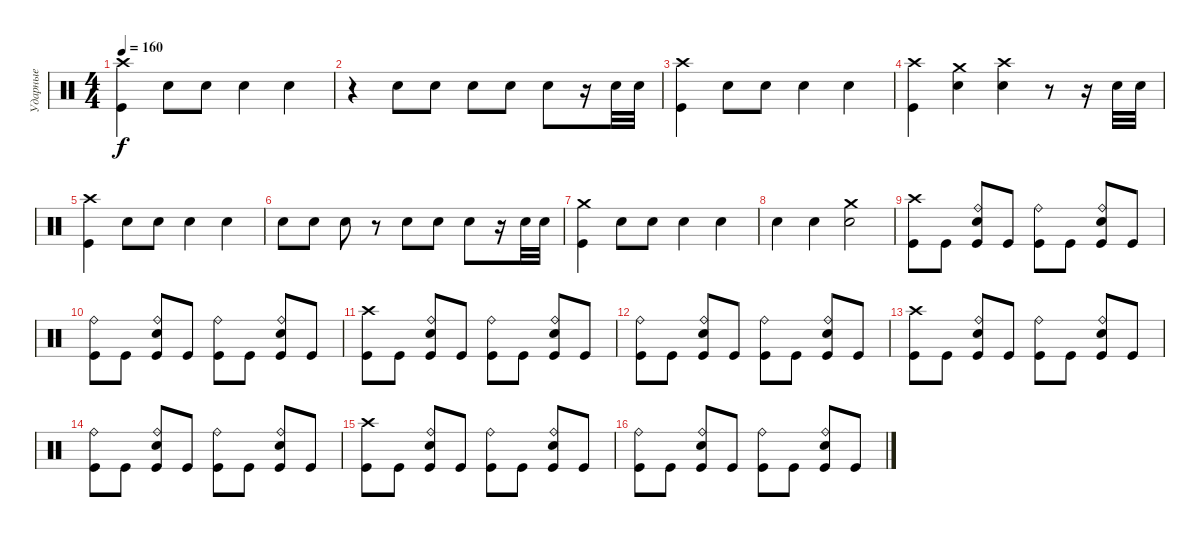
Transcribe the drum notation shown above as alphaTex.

\track ("Ударные" "Ударные") {instrument percussion}
\staff {score}
\articulation defaults
\ts (4 4)
\tempo 160
\clef neutral
\ks c
("Crash high (hit)" "Kick (hit)").4{dy f} "Snare (hit) 2".8 "Snare (hit) 2".8 "Snare (hit) 2".4 "Snare (hit) 2".4 |
r.4 "Snare (hit) 2".8 "Snare (hit) 2".8 "Snare (hit) 2".8 "Snare (hit) 2".8 "Snare (hit) 2".8 r.16 "Snare (hit) 2".32 "Snare (hit) 2".32 |
("Crash high (hit)" "Kick (hit)").4 "Snare (hit) 2".8 "Snare (hit) 2".8 "Snare (hit) 2".4 "Snare (hit) 2".4 |
("Crash high (hit)" "Kick (hit)").4 ("Crash medium (hit)" "Snare (hit) 2").4 ("Crash high (hit)" "Snare (hit) 2").4 r.8 r.16 "Snare (hit) 2".32 "Snare (hit) 2".32 |
("Crash high (hit)" "Kick (hit)").4 "Snare (hit) 2".8 "Snare (hit) 2".8 "Snare (hit) 2".4 "Snare (hit) 2".4 |
"Snare (hit) 2".8 "Snare (hit) 2".8 "Snare (hit) 2".8 r.8 "Snare (hit) 2".8 "Snare (hit) 2".8 "Snare (hit) 2".8 r.16 "Snare (hit) 2".32 "Snare (hit) 2".32 |
("Crash medium (hit)" "Kick (hit)").4 "Snare (hit) 2".8 "Snare (hit) 2".8 "Snare (hit) 2".4 "Snare (hit) 2".4 |
"Snare (hit) 2".4 "Snare (hit) 2".4 ("Crash medium (hit)" "Snare (hit) 2").2 |
("Crash high (hit)" "Kick (hit)").8 "Kick (hit)".8 ("Ride (bell)" "Electric Snare (hit)" "Kick (hit)").8 "Kick (hit)".8 ("Ride (bell)" "Kick (hit)").8 "Kick (hit)".8 ("Ride (bell)" "Electric Snare (hit)" "Kick (hit)").8 "Kick (hit)".8 |
("Ride (bell)" "Kick (hit)").8 "Kick (hit)".8 ("Ride (bell)" "Electric Snare (hit)" "Kick (hit)").8 "Kick (hit)".8 ("Ride (bell)" "Kick (hit)").8 "Kick (hit)".8 ("Ride (bell)" "Electric Snare (hit)" "Kick (hit)").8 "Kick (hit)".8 |
("Crash high (hit)" "Kick (hit)").8 "Kick (hit)".8 ("Ride (bell)" "Electric Snare (hit)" "Kick (hit)").8 "Kick (hit)".8 ("Ride (bell)" "Kick (hit)").8 "Kick (hit)".8 ("Ride (bell)" "Electric Snare (hit)" "Kick (hit)").8 "Kick (hit)".8 |
("Ride (bell)" "Kick (hit)").8 "Kick (hit)".8 ("Ride (bell)" "Electric Snare (hit)" "Kick (hit)").8 "Kick (hit)".8 ("Ride (bell)" "Kick (hit)").8 "Kick (hit)".8 ("Ride (bell)" "Electric Snare (hit)" "Kick (hit)").8 "Kick (hit)".8 |
("Crash high (hit)" "Kick (hit)").8 "Kick (hit)".8 ("Ride (bell)" "Electric Snare (hit)" "Kick (hit)").8 "Kick (hit)".8 ("Ride (bell)" "Kick (hit)").8 "Kick (hit)".8 ("Ride (bell)" "Electric Snare (hit)" "Kick (hit)").8 "Kick (hit)".8 |
("Ride (bell)" "Kick (hit)").8 "Kick (hit)".8 ("Ride (bell)" "Electric Snare (hit)" "Kick (hit)").8 "Kick (hit)".8 ("Ride (bell)" "Kick (hit)").8 "Kick (hit)".8 ("Ride (bell)" "Electric Snare (hit)" "Kick (hit)").8 "Kick (hit)".8 |
("Crash high (hit)" "Kick (hit)").8 "Kick (hit)".8 ("Ride (bell)" "Electric Snare (hit)" "Kick (hit)").8 "Kick (hit)".8 ("Ride (bell)" "Kick (hit)").8 "Kick (hit)".8 ("Ride (bell)" "Electric Snare (hit)" "Kick (hit)").8 "Kick (hit)".8 |
("Ride (bell)" "Kick (hit)").8 "Kick (hit)".8 ("Ride (bell)" "Electric Snare (hit)" "Kick (hit)").8 "Kick (hit)".8 ("Ride (bell)" "Kick (hit)").8 "Kick (hit)".8 ("Ride (bell)" "Electric Snare (hit)" "Kick (hit)").8 "Kick (hit)".8
